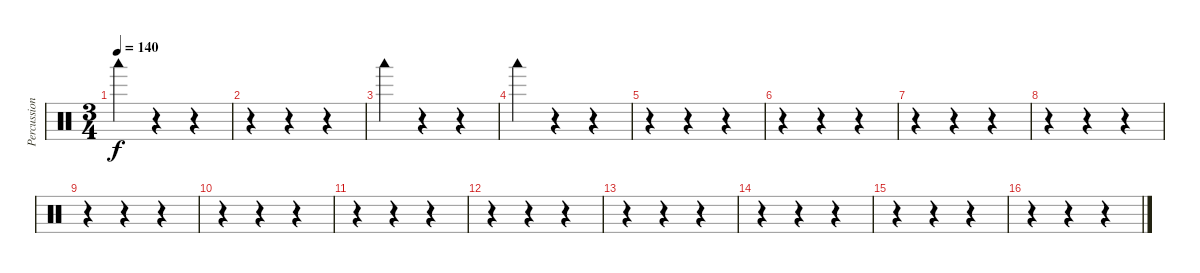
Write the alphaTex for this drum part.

\track ("Percussions" "Percussion") {instrument percussion}
\staff {score}
\articulation defaults
\ts (3 4)
\tempo 140
\clef neutral
\ks c "Woodblock low (hit)".4{dy f}
r.4 r.4 |
r.4 r.4 r.4 |
"Woodblock low (hit)".4 r.4 r.4 |
"Woodblock low (hit)".4 r.4 r.4 |
r.4 r.4 r.4 |
r.4 r.4 r.4 |
r.4 r.4 r.4 |
r.4 r.4 r.4 |
r.4 r.4 r.4 |
r.4 r.4 r.4 |
r.4 r.4 r.4 |
r.4 r.4 r.4 |
r.4 r.4 r.4 |
r.4 r.4 r.4 |
r.4 r.4 r.4 |
r.4 r.4 r.4
